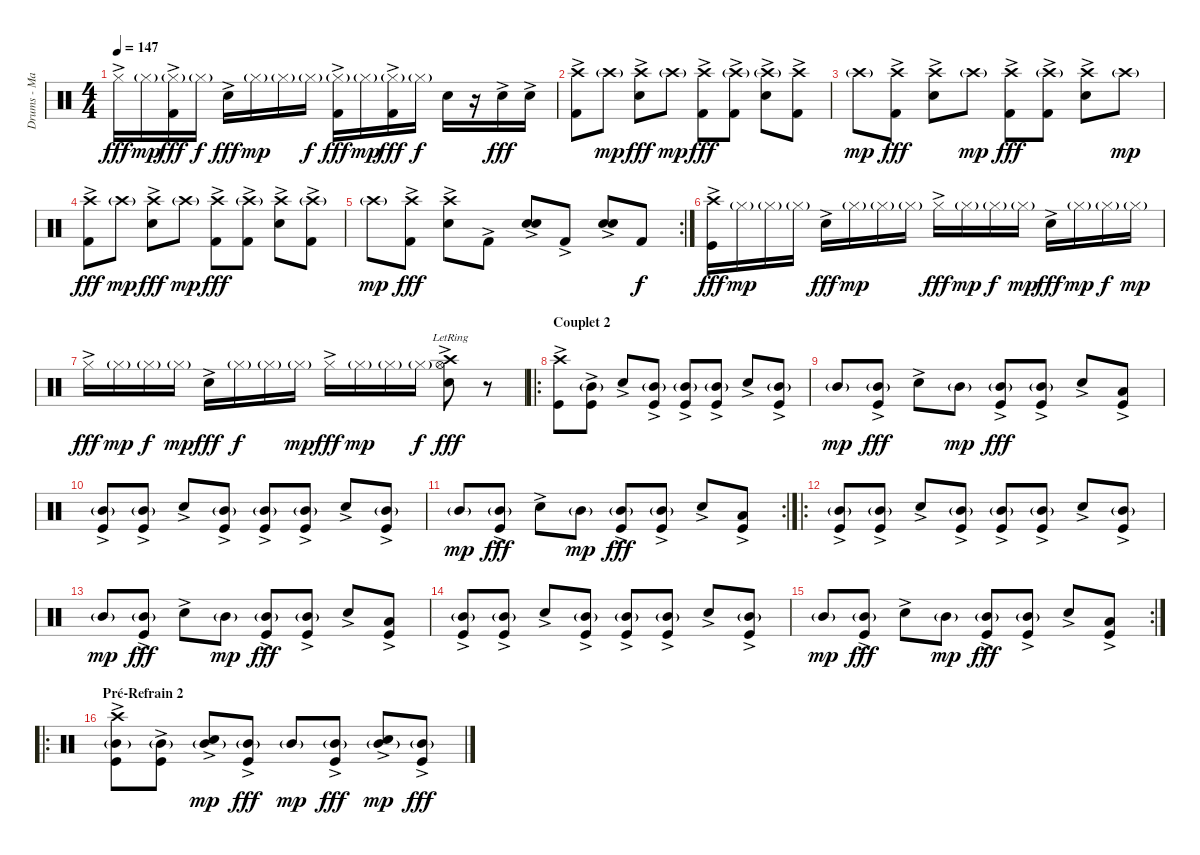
\track ("Drums - Manu" "Drums - Ma") {instrument percussion}
\staff {score}
\articulation defaults
\ts (4 4)
\tempo 147
\clef neutral
\ks c "Hi-Hat (closed)"{ac}.16{dy fff} "Hi-Hat (closed)"{g}.16{dy mp}
("Hi-Hat (closed)"{g} "Kick (hit) 2"{ac}).16{dy fff} "Hi-Hat (closed)"{g}.16{dy f} "Snare (hit) 2"{ac}.16{dy fff} "Hi-Hat (closed)"{g}.16{dy mp} "Hi-Hat (closed)"{g}.16 "Hi-Hat (closed)"{g}.16{dy f} ("Hi-Hat (closed)"{g} "Kick (hit) 2"{ac}).16{dy fff} "Hi-Hat (closed)"{g}.16{dy mp} ("Hi-Hat (closed)"{g} "Kick (hit) 2"{ac}).16{dy fff} "Hi-Hat (closed)"{g}.16{dy f} "Snare (hit) 2".16 r.16 "Snare (hit) 2"{ac}.16{dy fff} "Snare (hit) 2"{ac}.16 |
("Crash high (hit)" "Kick (hit) 2"{ac}).8 "Crash high (hit)"{g}.8{dy mp} ("Crash high (hit)" "Snare (hit) 2"{ac}).8{dy fff} "Crash high (hit)"{g}.8{dy mp} ("Crash high (hit)" "Kick (hit) 2"{ac}).8{dy fff} ("Crash high (hit)"{g} "Kick (hit) 2"{ac}).8 ("Crash high (hit)"{g} "Snare (hit) 2"{ac}).8 ("Crash high (hit)" "Kick (hit) 2"{ac}).8 |
"Crash high (hit)"{g}.8{dy mp} ("Crash high (hit)" "Kick (hit) 2"{ac}).8{dy fff} ("Crash high (hit)" "Snare (hit) 2"{ac}).8 "Crash high (hit)"{g}.8{dy mp} ("Crash high (hit)" "Kick (hit) 2"{ac}).8{dy fff} ("Crash high (hit)"{g} "Kick (hit) 2"{ac}).8 ("Crash high (hit)" "Snare (hit) 2"{ac}).8 "Crash high (hit)"{g}.8{dy mp} |
("Crash high (hit)" "Kick (hit) 2"{ac}).8{dy fff} "Crash high (hit)"{g}.8{dy mp} ("Crash high (hit)" "Snare (hit) 2"{ac}).8{dy fff} "Crash high (hit)"{g}.8{dy mp} ("Crash high (hit)" "Kick (hit) 2"{ac}).8{dy fff} ("Crash high (hit)"{g} "Kick (hit) 2"{ac}).8 ("Crash high (hit)" "Snare (hit) 2"{ac}).8 ("Crash high (hit)"{g} "Kick (hit) 2"{ac}).8 |
\rc 2 "Crash high (hit)"{g}.8{dy mp}
("Crash high (hit)" "Kick (hit) 2"{ac}).8{dy fff} ("Crash high (hit)" "Snare (hit) 2"{ac}).8 "Kick (hit) 2"{ac}.8 ("Snare (hit) 2" "Snare (hit) 2"{ac}).8 "Kick (hit) 2"{ac}.8 ("Snare (hit) 2"{ac} "Snare (hit) 2"{ac}).8 "Kick (hit) 2".8{dy f} |
("Crash high (hit)"{ac} "Kick (hit)"{ac}).16{dy fff} "Hi-Hat (closed)"{g}.16{dy mp} "Hi-Hat (closed)"{g}.16 "Hi-Hat (closed)"{g}.16 "Snare (hit) 2"{ac}.16{dy fff} "Hi-Hat (closed)"{g}.16{dy mp} "Hi-Hat (closed)"{g}.16 "Hi-Hat (closed)"{g}.16 "Hi-Hat (closed)"{ac}.16{dy fff} "Hi-Hat (closed)"{g}.16{dy mp} "Hi-Hat (closed)"{g}.16{dy f} "Hi-Hat (closed)"{g}.16{dy mp} "Snare (hit) 2"{ac}.16{dy fff} "Hi-Hat (closed)"{g}.16{dy mp} "Hi-Hat (closed)"{g}.16{dy f} "Hi-Hat (closed)"{g}.16{dy mp} |
"Hi-Hat (closed)"{ac}.16{dy fff} "Hi-Hat (closed)"{g}.16{dy mp} "Hi-Hat (closed)"{g}.16{dy f} "Hi-Hat (closed)"{g}.16{dy mp} "Snare (hit) 2"{ac}.16{dy fff} "Hi-Hat (closed)"{g}.16{dy f} "Hi-Hat (closed)"{g}.16 "Hi-Hat (closed)"{g}.16{dy mp} "Hi-Hat (closed)"{ac}.16{dy fff} "Hi-Hat (closed)"{g}.16{dy mp} "Hi-Hat (closed)"{g}.16 "Hi-Hat (closed)"{g}.16{dy f} ("Crash high (hit)"{ac lr} "Hi-Hat (open)"{ac lr} "Snare (hit) 2"{ac lr}).8{dy fff} r.8 |
\ro
\section ("" "Couplet 2")
("Crash high (hit)"{ac} "Kick (hit)"{ac}).8 ("Mid Tom (hit)"{g} "Kick (hit)"{ac}).8 "Snare (hit) 2"{ac}.8 ("Mid Tom (hit)"{g} "Kick (hit)"{ac}).8 ("Mid Tom (hit)"{g} "Kick (hit)"{ac}).8 ("Mid Tom (hit)"{g} "Kick (hit)"{ac}).8 "Snare (hit) 2"{ac}.8 ("Mid Tom (hit)"{g} "Kick (hit)"{ac}).8 |
"Mid Tom (hit)"{g}.8{dy mp} ("Mid Tom (hit)"{g} "Kick (hit)"{ac}).8{dy fff} "Snare (hit) 2"{ac}.8 "Mid Tom (hit)"{g}.8{dy mp} ("Mid Tom (hit)"{g} "Kick (hit)"{ac}).8{dy fff} ("Mid Tom (hit)"{g} "Kick (hit)"{ac}).8 "Snare (hit) 2"{ac}.8 ("Low Tom (hit)" "Kick (hit)"{ac}).8 |
("Mid Tom (hit)"{g ac} "Kick (hit)"{ac}).8 ("Mid Tom (hit)"{g} "Kick (hit)"{ac}).8 "Snare (hit) 2"{ac}.8 ("Mid Tom (hit)"{g} "Kick (hit)"{ac}).8 ("Mid Tom (hit)"{g} "Kick (hit)"{ac}).8 ("Mid Tom (hit)"{g} "Kick (hit)"{ac}).8 "Snare (hit) 2"{ac}.8 ("Mid Tom (hit)"{g} "Kick (hit)"{ac}).8 |
\rc 2 "Mid Tom (hit)"{g}.8{dy mp}
("Mid Tom (hit)"{g} "Kick (hit)"{ac}).8{dy fff} "Snare (hit) 2"{ac}.8 "Mid Tom (hit)"{g}.8{dy mp} ("Mid Tom (hit)"{g} "Kick (hit)"{ac}).8{dy fff} ("Mid Tom (hit)"{g} "Kick (hit)"{ac}).8 "Snare (hit) 2"{ac}.8 ("Low Tom (hit)" "Kick (hit)"{ac}).8 |
\ro
("Mid Tom (hit)"{g} "Kick (hit)"{ac}).8 ("Mid Tom (hit)"{g} "Kick (hit)"{ac}).8 "Snare (hit) 2"{ac}.8 ("Mid Tom (hit)"{g} "Kick (hit)"{ac}).8 ("Mid Tom (hit)"{g} "Kick (hit)"{ac}).8 ("Mid Tom (hit)"{g} "Kick (hit)"{ac}).8 "Snare (hit) 2"{ac}.8 ("Mid Tom (hit)"{g} "Kick (hit)"{ac}).8 |
"Mid Tom (hit)"{g}.8{dy mp} ("Mid Tom (hit)"{g} "Kick (hit)"{ac}).8{dy fff} "Snare (hit) 2"{ac}.8 "Mid Tom (hit)"{g}.8{dy mp} ("Mid Tom (hit)"{g} "Kick (hit)"{ac}).8{dy fff} ("Mid Tom (hit)"{g} "Kick (hit)"{ac}).8 "Snare (hit) 2"{ac}.8 ("Low Tom (hit)" "Kick (hit)"{ac}).8 |
("Mid Tom (hit)"{g} "Kick (hit)"{ac}).8 ("Mid Tom (hit)"{g} "Kick (hit)"{ac}).8 "Snare (hit) 2"{ac}.8 ("Mid Tom (hit)"{g} "Kick (hit)"{ac}).8 ("Mid Tom (hit)"{g} "Kick (hit)"{ac}).8 ("Mid Tom (hit)"{g} "Kick (hit)"{ac}).8 "Snare (hit) 2"{ac}.8 ("Mid Tom (hit)"{g} "Kick (hit)"{ac}).8 |
\rc 2 "Mid Tom (hit)"{g}.8{dy mp}
("Mid Tom (hit)"{g} "Kick (hit)"{ac}).8{dy fff} "Snare (hit) 2"{ac}.8 "Mid Tom (hit)"{g}.8{dy mp} ("Mid Tom (hit)"{g} "Kick (hit)"{ac}).8{dy fff} ("Mid Tom (hit)"{g} "Kick (hit)"{ac}).8 "Snare (hit) 2"{ac}.8 ("Low Tom (hit)" "Kick (hit)"{ac}).8 |
\ro
\section ("" "Pré-Refrain 2")
("Crash high (hit)"{ac} "Mid Tom (hit)"{g} "Kick (hit)"{ac}).8 ("Mid Tom (hit)"{g} "Kick (hit)"{ac}).8 ("Snare (hit) 2"{ac} "Mid Tom (hit)"{g}).8{dy mp} ("Mid Tom (hit)"{g} "Kick (hit)"{ac}).8{dy fff} "Mid Tom (hit)"{g}.8{dy mp} ("Mid Tom (hit)"{g} "Kick (hit)"{ac}).8{dy fff} ("Snare (hit) 2"{ac} "Mid Tom (hit)"{g}).8{dy mp} ("Mid Tom (hit)"{g} "Kick (hit)"{ac}).8{dy fff}
